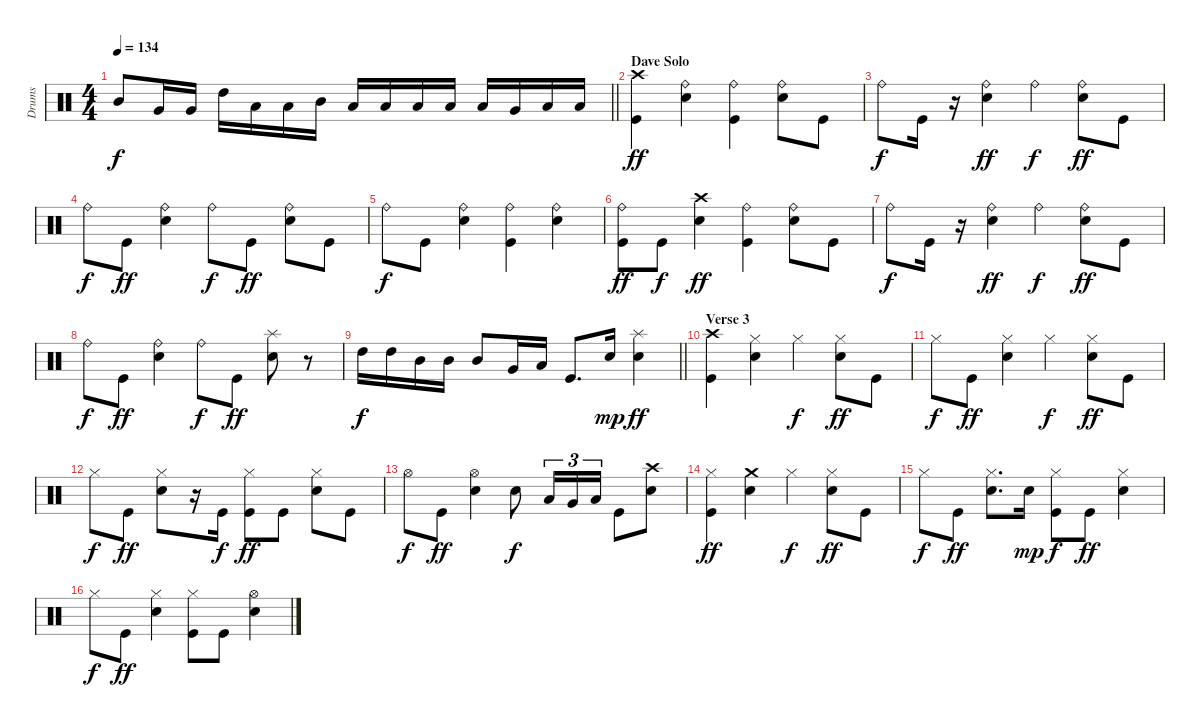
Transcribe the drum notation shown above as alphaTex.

\track ("Drums" "Drums") {instrument percussion}
\staff {score}
\articulation defaults
\ts (4 4)
\tempo 134
\clef neutral
\barLineRight lightlight
\ks c "Mid Tom (hit)".8{dy f} "Very Low Tom (hit)".16 "Very Low Tom (hit)".16 "High Tom (hit)".16 "Low Floor Tom (hit)".16 "Low Floor Tom (hit)".16 "Mid Tom (hit)".16 "Low Floor Tom (hit)".16 "Low Floor Tom (hit)".16 "Low Tom (hit)".16 "Low Floor Tom (hit)".16 "Low Floor Tom (hit)".16 "Very Low Tom (hit)".16 "Low Floor Tom (hit)".16 "Low Floor Tom (hit)".16
|
\section ("" "Dave Solo")
("Crash high (hit)" "Kick (hit)").4{dy ff} ("Ride (bell)" "Electric Snare (hit)").4 ("Ride (bell)" "Kick (hit)").4 ("Ride (bell)" "Electric Snare (hit)").8 "Kick (hit)".8 |
"Ride (bell)".8{dy f} "Kick (hit)".16 r.16 ("Ride (bell)" "Electric Snare (hit)").4{dy ff} "Ride (bell)".4{dy f} ("Ride (bell)" "Electric Snare (hit)").8{dy ff} "Kick (hit)".8 |
"Ride (bell)".8{dy f} "Kick (hit)".8{dy ff} ("Ride (bell)" "Electric Snare (hit)").4 "Ride (bell)".8{dy f} "Kick (hit)".8{dy ff} ("Ride (bell)" "Electric Snare (hit)").8 "Kick (hit)".8 |
"Ride (bell)".8{dy f} "Kick (hit)".8 ("Ride (bell)" "Electric Snare (hit)").4 ("Ride (bell)" "Kick (hit)").4 ("Ride (bell)" "Electric Snare (hit)").4 |
("Ride (bell)" "Kick (hit)").8{dy ff} "Kick (hit)".8{dy f} ("Crash high (hit)" "Electric Snare (hit)").4{dy ff} ("Ride (bell)" "Kick (hit)").4 ("Ride (bell)" "Electric Snare (hit)").8 "Kick (hit)".8 |
"Ride (bell)".8{dy f} "Kick (hit)".16 r.16 ("Ride (bell)" "Electric Snare (hit)").4{dy ff} "Ride (bell)".4{dy f} ("Ride (bell)" "Electric Snare (hit)").8{dy ff} "Kick (hit)".8 |
"Ride (bell)".8{dy f} "Kick (hit)".8{dy ff} ("Ride (bell)" "Electric Snare (hit)").4 "Ride (bell)".8{dy f} "Kick (hit)".8{dy ff} ("Splash (hit)" "Electric Snare (hit)").8 r.8 |
\barLineRight lightlight "High Tom (hit)".16{dy f} "High Tom (hit)".16 "Mid Tom (hit)".16 "Mid Tom (hit)".16 "Mid Tom (hit)".8 "Very Low Tom (hit)".16 "Low Floor Tom (hit)".16 "Kick (hit)".8{d} "Electric Snare (hit)".16{dy mp}
("Splash (hit)" "Electric Snare (hit)").4{dy ff} |
\section ("" "Verse 3")
("Crash high (hit)" "Kick (hit)").4 ("Hi-Hat (closed)" "Electric Snare (hit)").4 "Hi-Hat (closed)".4{dy f} ("Hi-Hat (closed)" "Electric Snare (hit)").8{dy ff} "Kick (hit)".8 |
"Hi-Hat (closed)".8{dy f} "Kick (hit)".8{dy ff} ("Hi-Hat (closed)" "Electric Snare (hit)").4 "Hi-Hat (closed)".4{dy f} ("Hi-Hat (closed)" "Electric Snare (hit)").8{dy ff} "Kick (hit)".8 |
"Hi-Hat (closed)".8{dy f} "Kick (hit)".8{dy ff} ("Hi-Hat (closed)" "Electric Snare (hit)").8 r.16 "Kick (hit)".16{dy f} ("Hi-Hat (closed)" "Kick (hit)").8{dy ff} "Kick (hit)".8 ("Hi-Hat (closed)" "Electric Snare (hit)").8 "Kick (hit)".8 |
"Hi-Hat (open)".8{dy f} "Kick (hit)".8{dy ff} ("Hi-Hat (open)" "Electric Snare (hit)").4 "Electric Snare (hit)".8{dy f} "Low Tom (hit)".16{tu (3 2)} "Very Low Tom (hit)".16{tu (3 2)} "Low Floor Tom (hit)".16{tu (3 2)} "Kick (hit)".8 ("Crash high (hit)" "Electric Snare (hit)").8 |
("Hi-Hat (closed)" "Kick (hit)").4{dy ff} ("Crash medium (hit)" "Electric Snare (hit)").4 "Hi-Hat (closed)".4{dy f} ("Hi-Hat (closed)" "Electric Snare (hit)").8{dy ff} "Kick (hit)".8 |
"Hi-Hat (closed)".8{dy f} "Kick (hit)".8{dy ff} ("Hi-Hat (closed)" "Electric Snare (hit)").8{d} "Electric Snare (hit)".16{dy mp} ("Hi-Hat (closed)" "Kick (hit)").8{dy f} "Kick (hit)".8{dy ff} ("Hi-Hat (closed)" "Electric Snare (hit)").4 |
"Hi-Hat (closed)".8{dy f} "Kick (hit)".8{dy ff} ("Hi-Hat (closed)" "Electric Snare (hit)").4 ("Hi-Hat (closed)" "Kick (hit)").8 "Kick (hit)".8 ("Hi-Hat (open)" "Electric Snare (hit)").4
